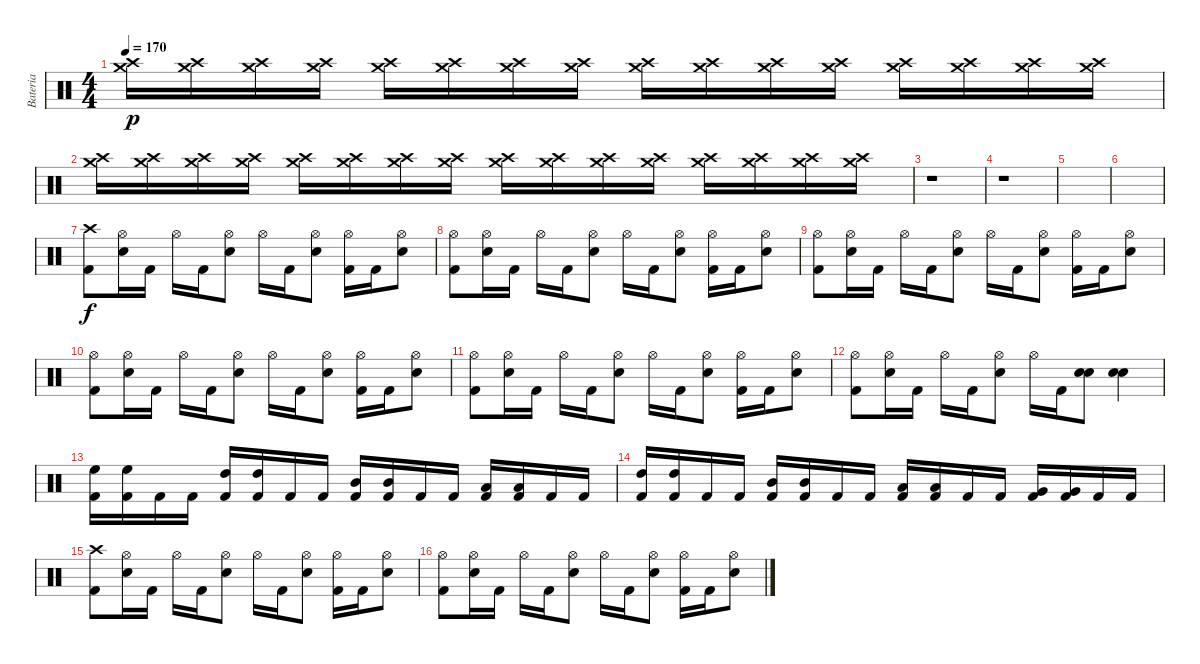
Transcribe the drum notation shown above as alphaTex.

\track ("Bateria" "Bateria") {instrument percussion}
\staff {score}
\articulation defaults
\ts (4 4)
\tempo 170
\clef neutral
\ks c
("Crash medium (hit)" "Crash high (hit)").16{dy p} ("Crash medium (hit)" "Crash high (hit)").16 ("Crash medium (hit)" "Crash high (hit)").16 ("Crash medium (hit)" "Crash high (hit)").16 ("Crash medium (hit)" "Crash high (hit)").16 ("Crash medium (hit)" "Crash high (hit)").16 ("Crash medium (hit)" "Crash high (hit)").16 ("Crash medium (hit)" "Crash high (hit)").16 ("Crash medium (hit)" "Crash high (hit)").16 ("Crash medium (hit)" "Crash high (hit)").16 ("Crash medium (hit)" "Crash high (hit)").16 ("Crash medium (hit)" "Crash high (hit)").16 ("Crash medium (hit)" "Crash high (hit)").16 ("Crash medium (hit)" "Crash high (hit)").16 ("Crash medium (hit)" "Crash high (hit)").16 ("Crash medium (hit)" "Crash high (hit)").16 |
("Crash medium (hit)" "Crash high (hit)").16 ("Crash medium (hit)" "Crash high (hit)").16 ("Crash medium (hit)" "Crash high (hit)").16 ("Crash medium (hit)" "Crash high (hit)").16 ("Crash medium (hit)" "Crash high (hit)").16 ("Crash medium (hit)" "Crash high (hit)").16 ("Crash medium (hit)" "Crash high (hit)").16 ("Crash medium (hit)" "Crash high (hit)").16 ("Crash medium (hit)" "Crash high (hit)").16 ("Crash medium (hit)" "Crash high (hit)").16 ("Crash medium (hit)" "Crash high (hit)").16 ("Crash medium (hit)" "Crash high (hit)").16 ("Crash medium (hit)" "Crash high (hit)").16 ("Crash medium (hit)" "Crash high (hit)").16 ("Crash medium (hit)" "Crash high (hit)").16 ("Crash medium (hit)" "Crash high (hit)").16 |
r.1 |
r.1 |
|
|
("Crash high (hit)" "Kick (hit) 2").8{dy f} ("Hi-Hat (open)" "Snare (hit) 2").16 "Kick (hit) 2".16 "Hi-Hat (open)".16 "Kick (hit) 2".16 ("Hi-Hat (open)" "Snare (hit) 2").8 "Hi-Hat (open)".16 "Kick (hit) 2".16 ("Hi-Hat (open)" "Snare (hit) 2").8 ("Hi-Hat (open)" "Kick (hit) 2").16 "Kick (hit) 2".16 ("Hi-Hat (open)" "Snare (hit) 2").8 |
("Hi-Hat (open)" "Kick (hit) 2").8 ("Hi-Hat (open)" "Snare (hit) 2").16 "Kick (hit) 2".16 "Hi-Hat (open)".16 "Kick (hit) 2".16 ("Hi-Hat (open)" "Snare (hit) 2").8 "Hi-Hat (open)".16 "Kick (hit) 2".16 ("Hi-Hat (open)" "Snare (hit) 2").8 ("Hi-Hat (open)" "Kick (hit) 2").16 "Kick (hit) 2".16 ("Hi-Hat (open)" "Snare (hit) 2").8 |
("Hi-Hat (open)" "Kick (hit) 2").8 ("Hi-Hat (open)" "Snare (hit) 2").16 "Kick (hit) 2".16 "Hi-Hat (open)".16 "Kick (hit) 2".16 ("Hi-Hat (open)" "Snare (hit) 2").8 "Hi-Hat (open)".16 "Kick (hit) 2".16 ("Hi-Hat (open)" "Snare (hit) 2").8 ("Hi-Hat (open)" "Kick (hit) 2").16 "Kick (hit) 2".16 ("Hi-Hat (open)" "Snare (hit) 2").8 |
("Hi-Hat (open)" "Kick (hit) 2").8 ("Hi-Hat (open)" "Snare (hit) 2").16 "Kick (hit) 2".16 "Hi-Hat (open)".16 "Kick (hit) 2".16 ("Hi-Hat (open)" "Snare (hit) 2").8 "Hi-Hat (open)".16 "Kick (hit) 2".16 ("Hi-Hat (open)" "Snare (hit) 2").8 ("Hi-Hat (open)" "Kick (hit) 2").16 "Kick (hit) 2".16 ("Hi-Hat (open)" "Snare (hit) 2").8 |
("Hi-Hat (open)" "Kick (hit) 2").8 ("Hi-Hat (open)" "Snare (hit) 2").16 "Kick (hit) 2".16 "Hi-Hat (open)".16 "Kick (hit) 2".16 ("Hi-Hat (open)" "Snare (hit) 2").8 "Hi-Hat (open)".16 "Kick (hit) 2".16 ("Hi-Hat (open)" "Snare (hit) 2").8 ("Hi-Hat (open)" "Kick (hit) 2").16 "Kick (hit) 2".16 ("Hi-Hat (open)" "Snare (hit) 2").8 |
("Hi-Hat (open)" "Kick (hit) 2").8 ("Hi-Hat (open)" "Snare (hit) 2").16 "Kick (hit) 2".16 "Hi-Hat (open)".16 "Kick (hit) 2".16 ("Hi-Hat (open)" "Snare (hit) 2").8 "Hi-Hat (open)".16 "Kick (hit) 2".16 ("Snare (hit) 2" "Snare (hit) 2").8 ("Snare (hit) 2" "Snare (hit) 2").4 |
("High Floor Tom (hit)" "Kick (hit) 2").16 ("High Floor Tom (hit)" "Kick (hit) 2").16 "Kick (hit) 2".16 "Kick (hit) 2".16 ("High Tom (hit)" "Kick (hit) 2").16 ("High Tom (hit)" "Kick (hit) 2").16 "Kick (hit) 2".16 "Kick (hit) 2".16 ("Mid Tom (hit)" "Kick (hit) 2").16 ("Mid Tom (hit)" "Kick (hit) 2").16 "Kick (hit) 2".16 "Kick (hit) 2".16 ("Low Tom (hit)" "Kick (hit) 2").16 ("Low Tom (hit)" "Kick (hit) 2").16 "Kick (hit) 2".16 "Kick (hit) 2".16 |
("High Tom (hit)" "Kick (hit) 2").16 ("High Tom (hit)" "Kick (hit) 2").16 "Kick (hit) 2".16 "Kick (hit) 2".16 ("Mid Tom (hit)" "Kick (hit) 2").16 ("Mid Tom (hit)" "Kick (hit) 2").16 "Kick (hit) 2".16 "Kick (hit) 2".16 ("Low Tom (hit)" "Kick (hit) 2").16 ("Low Tom (hit)" "Kick (hit) 2").16 "Kick (hit) 2".16 "Kick (hit) 2".16 ("Very Low Tom (hit)" "Kick (hit) 2").16 ("Very Low Tom (hit)" "Kick (hit) 2").16 "Kick (hit) 2".16 "Kick (hit) 2".16 |
("Crash high (hit)" "Kick (hit) 2").8 ("Hi-Hat (open)" "Snare (hit) 2").16 "Kick (hit) 2".16 "Hi-Hat (open)".16 "Kick (hit) 2".16 ("Hi-Hat (open)" "Snare (hit) 2").8 "Hi-Hat (open)".16 "Kick (hit) 2".16 ("Hi-Hat (open)" "Snare (hit) 2").8 ("Hi-Hat (open)" "Kick (hit) 2").16 "Kick (hit) 2".16 ("Hi-Hat (open)" "Snare (hit) 2").8 |
("Hi-Hat (open)" "Kick (hit) 2").8 ("Hi-Hat (open)" "Snare (hit) 2").16 "Kick (hit) 2".16 "Hi-Hat (open)".16 "Kick (hit) 2".16 ("Hi-Hat (open)" "Snare (hit) 2").8 "Hi-Hat (open)".16 "Kick (hit) 2".16 ("Hi-Hat (open)" "Snare (hit) 2").8 ("Hi-Hat (open)" "Kick (hit) 2").16 "Kick (hit) 2".16 ("Hi-Hat (open)" "Snare (hit) 2").8
